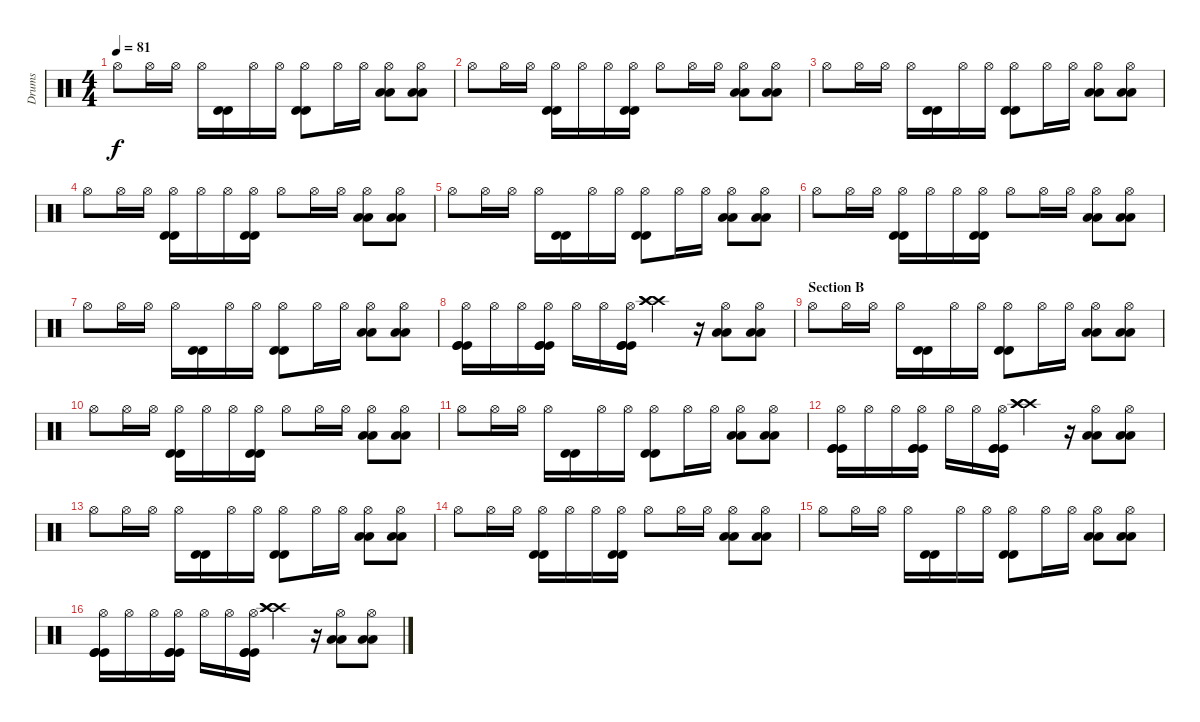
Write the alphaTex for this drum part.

\track ("Drums" "Drums") {instrument percussion}
\staff {score}
\articulation defaults
\ts (4 4)
\tempo 81
\clef neutral
\ks c "Hi-Hat (open)".8{dy f} "Hi-Hat (open)".16 "Hi-Hat (open)".16 "Hi-Hat (open)".16
("Timbale high (hit)" "Timbale high (hit)").16 "Hi-Hat (open)".16 "Hi-Hat (open)".16 ("Hi-Hat (open)" "Timbale high (hit)" "Timbale high (hit)").8 "Hi-Hat (open)".16 "Hi-Hat (open)".16 ("Hi-Hat (open)" "Low Tom (hit)" "Low Tom (hit)").8 ("Hi-Hat (open)" "Low Tom (hit)" "Low Tom (hit)").8 |
"Hi-Hat (open)".8 "Hi-Hat (open)".16 "Hi-Hat (open)".16 ("Hi-Hat (open)" "Timbale high (hit)" "Timbale high (hit)").16 "Hi-Hat (open)".16 "Hi-Hat (open)".16 ("Hi-Hat (open)" "Timbale high (hit)" "Timbale high (hit)").16 "Hi-Hat (open)".8 "Hi-Hat (open)".16 "Hi-Hat (open)".16 ("Hi-Hat (open)" "Low Tom (hit)" "Low Tom (hit)").8 ("Hi-Hat (open)" "Low Tom (hit)" "Low Tom (hit)").8 |
"Hi-Hat (open)".8 "Hi-Hat (open)".16 "Hi-Hat (open)".16 "Hi-Hat (open)".16 ("Timbale high (hit)" "Timbale high (hit)").16 "Hi-Hat (open)".16 "Hi-Hat (open)".16 ("Hi-Hat (open)" "Timbale high (hit)" "Timbale high (hit)").8 "Hi-Hat (open)".16 "Hi-Hat (open)".16 ("Hi-Hat (open)" "Low Tom (hit)" "Low Tom (hit)").8 ("Hi-Hat (open)" "Low Tom (hit)" "Low Tom (hit)").8 |
"Hi-Hat (open)".8 "Hi-Hat (open)".16 "Hi-Hat (open)".16 ("Hi-Hat (open)" "Timbale high (hit)" "Timbale high (hit)").16 "Hi-Hat (open)".16 "Hi-Hat (open)".16 ("Hi-Hat (open)" "Timbale high (hit)" "Timbale high (hit)").16 "Hi-Hat (open)".8 "Hi-Hat (open)".16 "Hi-Hat (open)".16 ("Hi-Hat (open)" "Low Tom (hit)" "Low Tom (hit)").8 ("Hi-Hat (open)" "Low Tom (hit)" "Low Tom (hit)").8 |
"Hi-Hat (open)".8 "Hi-Hat (open)".16 "Hi-Hat (open)".16 "Hi-Hat (open)".16 ("Timbale high (hit)" "Timbale high (hit)").16 "Hi-Hat (open)".16 "Hi-Hat (open)".16 ("Hi-Hat (open)" "Timbale high (hit)" "Timbale high (hit)").8 "Hi-Hat (open)".16 "Hi-Hat (open)".16 ("Hi-Hat (open)" "Low Tom (hit)" "Low Tom (hit)").8 ("Hi-Hat (open)" "Low Tom (hit)" "Low Tom (hit)").8 |
"Hi-Hat (open)".8 "Hi-Hat (open)".16 "Hi-Hat (open)".16 ("Hi-Hat (open)" "Timbale high (hit)" "Timbale high (hit)").16 "Hi-Hat (open)".16 "Hi-Hat (open)".16 ("Hi-Hat (open)" "Timbale high (hit)" "Timbale high (hit)").16 "Hi-Hat (open)".8 "Hi-Hat (open)".16 "Hi-Hat (open)".16 ("Hi-Hat (open)" "Low Tom (hit)" "Low Tom (hit)").8 ("Hi-Hat (open)" "Low Tom (hit)" "Low Tom (hit)").8 |
"Hi-Hat (open)".8 "Hi-Hat (open)".16 "Hi-Hat (open)".16 "Hi-Hat (open)".16 ("Timbale high (hit)" "Timbale high (hit)").16 "Hi-Hat (open)".16 "Hi-Hat (open)".16 ("Hi-Hat (open)" "Timbale high (hit)" "Timbale high (hit)").8 "Hi-Hat (open)".16 "Hi-Hat (open)".16 ("Hi-Hat (open)" "Low Tom (hit)" "Low Tom (hit)").8 ("Hi-Hat (open)" "Low Tom (hit)" "Low Tom (hit)").8 |
("Hi-Hat (open)" "Kick (hit)" "Kick (hit)" "Kick (hit)").16 "Hi-Hat (open)".16 "Hi-Hat (open)".16 ("Hi-Hat (open)" "Kick (hit)" "Kick (hit)" "Kick (hit)").16 "Hi-Hat (open)".16 "Hi-Hat (open)".16 ("Hi-Hat (open)" "Kick (hit)" "Kick (hit)" "Kick (hit)").16 ("Crash high (hit)" "Crash high (hit)" "Crash high (hit)").4 r.16 ("Hi-Hat (open)" "Low Tom (hit)" "Low Tom (hit)").8 ("Hi-Hat (open)" "Low Tom (hit)" "Low Tom (hit)").8 |
\section ("" "Section B")
"Hi-Hat (open)".8 "Hi-Hat (open)".16 "Hi-Hat (open)".16 "Hi-Hat (open)".16 ("Timbale high (hit)" "Timbale high (hit)").16 "Hi-Hat (open)".16 "Hi-Hat (open)".16 ("Hi-Hat (open)" "Timbale high (hit)" "Timbale high (hit)").8 "Hi-Hat (open)".16 "Hi-Hat (open)".16 ("Hi-Hat (open)" "Low Tom (hit)" "Low Tom (hit)").8 ("Hi-Hat (open)" "Low Tom (hit)" "Low Tom (hit)").8 |
"Hi-Hat (open)".8 "Hi-Hat (open)".16 "Hi-Hat (open)".16 ("Hi-Hat (open)" "Timbale high (hit)" "Timbale high (hit)").16 "Hi-Hat (open)".16 "Hi-Hat (open)".16 ("Hi-Hat (open)" "Timbale high (hit)" "Timbale high (hit)").16 "Hi-Hat (open)".8 "Hi-Hat (open)".16 "Hi-Hat (open)".16 ("Hi-Hat (open)" "Low Tom (hit)" "Low Tom (hit)").8 ("Hi-Hat (open)" "Low Tom (hit)" "Low Tom (hit)").8 |
"Hi-Hat (open)".8 "Hi-Hat (open)".16 "Hi-Hat (open)".16 "Hi-Hat (open)".16 ("Timbale high (hit)" "Timbale high (hit)").16 "Hi-Hat (open)".16 "Hi-Hat (open)".16 ("Hi-Hat (open)" "Timbale high (hit)" "Timbale high (hit)").8 "Hi-Hat (open)".16 "Hi-Hat (open)".16 ("Hi-Hat (open)" "Low Tom (hit)" "Low Tom (hit)").8 ("Hi-Hat (open)" "Low Tom (hit)" "Low Tom (hit)").8 |
("Hi-Hat (open)" "Kick (hit)" "Kick (hit)" "Kick (hit)").16 "Hi-Hat (open)".16 "Hi-Hat (open)".16 ("Hi-Hat (open)" "Kick (hit)" "Kick (hit)" "Kick (hit)").16 "Hi-Hat (open)".16 "Hi-Hat (open)".16 ("Hi-Hat (open)" "Kick (hit)" "Kick (hit)" "Kick (hit)").16 ("Crash high (hit)" "Crash high (hit)" "Crash high (hit)").4 r.16 ("Hi-Hat (open)" "Low Tom (hit)" "Low Tom (hit)").8 ("Hi-Hat (open)" "Low Tom (hit)" "Low Tom (hit)").8 |
"Hi-Hat (open)".8 "Hi-Hat (open)".16 "Hi-Hat (open)".16 "Hi-Hat (open)".16 ("Timbale high (hit)" "Timbale high (hit)").16 "Hi-Hat (open)".16 "Hi-Hat (open)".16 ("Hi-Hat (open)" "Timbale high (hit)" "Timbale high (hit)").8 "Hi-Hat (open)".16 "Hi-Hat (open)".16 ("Hi-Hat (open)" "Low Tom (hit)" "Low Tom (hit)").8 ("Hi-Hat (open)" "Low Tom (hit)" "Low Tom (hit)").8 |
"Hi-Hat (open)".8 "Hi-Hat (open)".16 "Hi-Hat (open)".16 ("Hi-Hat (open)" "Timbale high (hit)" "Timbale high (hit)").16 "Hi-Hat (open)".16 "Hi-Hat (open)".16 ("Hi-Hat (open)" "Timbale high (hit)" "Timbale high (hit)").16 "Hi-Hat (open)".8 "Hi-Hat (open)".16 "Hi-Hat (open)".16 ("Hi-Hat (open)" "Low Tom (hit)" "Low Tom (hit)").8 ("Hi-Hat (open)" "Low Tom (hit)" "Low Tom (hit)").8 |
"Hi-Hat (open)".8 "Hi-Hat (open)".16 "Hi-Hat (open)".16 "Hi-Hat (open)".16 ("Timbale high (hit)" "Timbale high (hit)").16 "Hi-Hat (open)".16 "Hi-Hat (open)".16 ("Hi-Hat (open)" "Timbale high (hit)" "Timbale high (hit)").8 "Hi-Hat (open)".16 "Hi-Hat (open)".16 ("Hi-Hat (open)" "Low Tom (hit)" "Low Tom (hit)").8 ("Hi-Hat (open)" "Low Tom (hit)" "Low Tom (hit)").8 |
("Hi-Hat (open)" "Kick (hit)" "Kick (hit)" "Kick (hit)").16 "Hi-Hat (open)".16 "Hi-Hat (open)".16 ("Hi-Hat (open)" "Kick (hit)" "Kick (hit)" "Kick (hit)").16 "Hi-Hat (open)".16 "Hi-Hat (open)".16 ("Hi-Hat (open)" "Kick (hit)" "Kick (hit)" "Kick (hit)").16 ("Crash high (hit)" "Crash high (hit)" "Crash high (hit)").4 r.16 ("Hi-Hat (open)" "Low Tom (hit)" "Low Tom (hit)").8 ("Hi-Hat (open)" "Low Tom (hit)" "Low Tom (hit)").8
